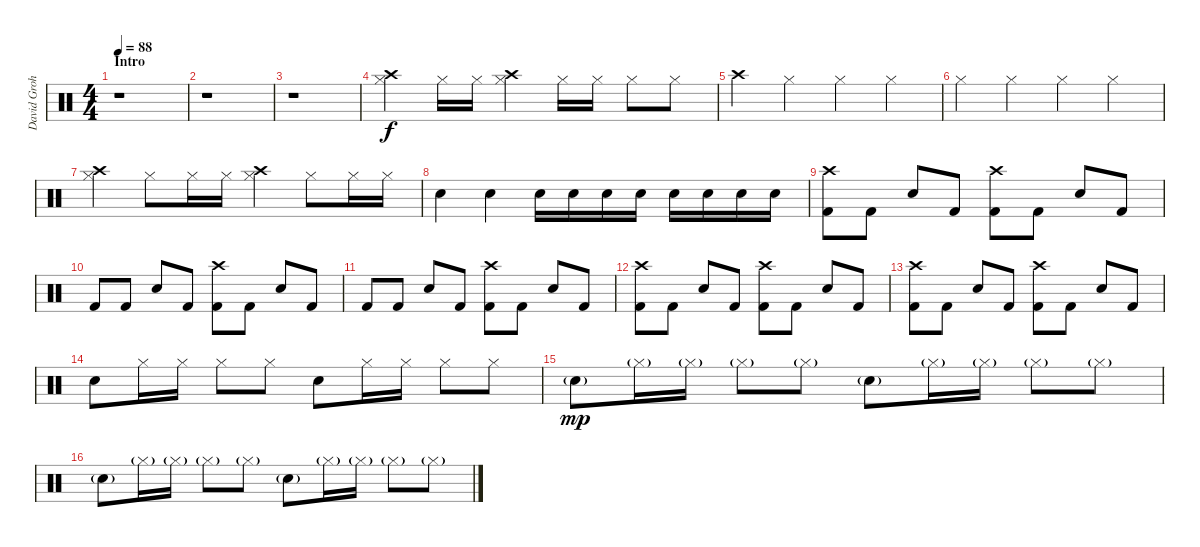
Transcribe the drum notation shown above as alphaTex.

\track ("David Grohl/Alfredo Ortiz" "David Groh") {instrument percussion}
\staff {score}
\articulation defaults
\ts (4 4)
\section ("" "Intro")
\tempo 88
\clef neutral
\ks c
r.1{dy f} |
r.1 |
r.1 |
("Crash high (hit)" "Hi-Hat (closed)").4 "Hi-Hat (closed)".16 "Hi-Hat (closed)".16 ("Crash high (hit)" "Hi-Hat (closed)").4 "Hi-Hat (closed)".16 "Hi-Hat (closed)".16 "Hi-Hat (closed)".8 "Hi-Hat (closed)".8 |
"Crash high (hit)".4 "Hi-Hat (closed)".4 "Hi-Hat (closed)".4 "Hi-Hat (closed)".4 |
"Hi-Hat (closed)".4 "Hi-Hat (closed)".4 "Hi-Hat (closed)".4 "Hi-Hat (closed)".4 |
("Crash high (hit)" "Hi-Hat (closed)").4 "Hi-Hat (closed)".8 "Hi-Hat (closed)".16 "Hi-Hat (closed)".16 ("Crash high (hit)" "Hi-Hat (closed)").4 "Hi-Hat (closed)".8 "Hi-Hat (closed)".16 "Hi-Hat (closed)".16 |
"Snare (hit) 2".4 "Snare (hit) 2".4 "Snare (hit) 2".16 "Snare (hit) 2".16 "Snare (hit) 2".16 "Snare (hit) 2".16 "Snare (hit) 2".16 "Snare (hit) 2".16 "Snare (hit) 2".16 "Snare (hit) 2".16 |
("Crash high (hit)" "Kick (hit) 2").8 "Kick (hit) 2".8 "Snare (hit) 2".8 "Kick (hit) 2".8 ("Crash high (hit)" "Kick (hit) 2").8 "Kick (hit) 2".8 "Snare (hit) 2".8 "Kick (hit) 2".8 |
"Kick (hit) 2".8 "Kick (hit) 2".8 "Snare (hit) 2".8 "Kick (hit) 2".8 ("Crash high (hit)" "Kick (hit) 2").8 "Kick (hit) 2".8 "Snare (hit) 2".8 "Kick (hit) 2".8 |
"Kick (hit) 2".8 "Kick (hit) 2".8 "Snare (hit) 2".8 "Kick (hit) 2".8 ("Crash high (hit)" "Kick (hit) 2").8 "Kick (hit) 2".8 "Snare (hit) 2".8 "Kick (hit) 2".8 |
("Crash high (hit)" "Kick (hit) 2").8 "Kick (hit) 2".8 "Snare (hit) 2".8 "Kick (hit) 2".8 ("Crash high (hit)" "Kick (hit) 2").8 "Kick (hit) 2".8 "Snare (hit) 2".8 "Kick (hit) 2".8 |
("Crash high (hit)" "Kick (hit) 2").8 "Kick (hit) 2".8 "Snare (hit) 2".8 "Kick (hit) 2".8 ("Crash high (hit)" "Kick (hit) 2").8 "Kick (hit) 2".8 "Snare (hit) 2".8 "Kick (hit) 2".8 |
"Snare (hit) 2".8 "Hi-Hat (closed)".16 "Hi-Hat (closed)".16 "Hi-Hat (closed)".8 "Hi-Hat (closed)".8 "Snare (hit) 2".8 "Hi-Hat (closed)".16 "Hi-Hat (closed)".16 "Hi-Hat (closed)".8 "Hi-Hat (closed)".8 |
"Snare (hit) 2"{g}.8{dy mp} "Hi-Hat (closed)"{g}.16 "Hi-Hat (closed)"{g}.16 "Hi-Hat (closed)"{g}.8 "Hi-Hat (closed)"{g}.8 "Snare (hit) 2"{g}.8 "Hi-Hat (closed)"{g}.16 "Hi-Hat (closed)"{g}.16 "Hi-Hat (closed)"{g}.8 "Hi-Hat (closed)"{g}.8 |
"Snare (hit) 2"{g}.8 "Hi-Hat (closed)"{g}.16 "Hi-Hat (closed)"{g}.16 "Hi-Hat (closed)"{g}.8 "Hi-Hat (closed)"{g}.8 "Snare (hit) 2"{g}.8 "Hi-Hat (closed)"{g}.16 "Hi-Hat (closed)"{g}.16 "Hi-Hat (closed)"{g}.8 "Hi-Hat (closed)"{g}.8
